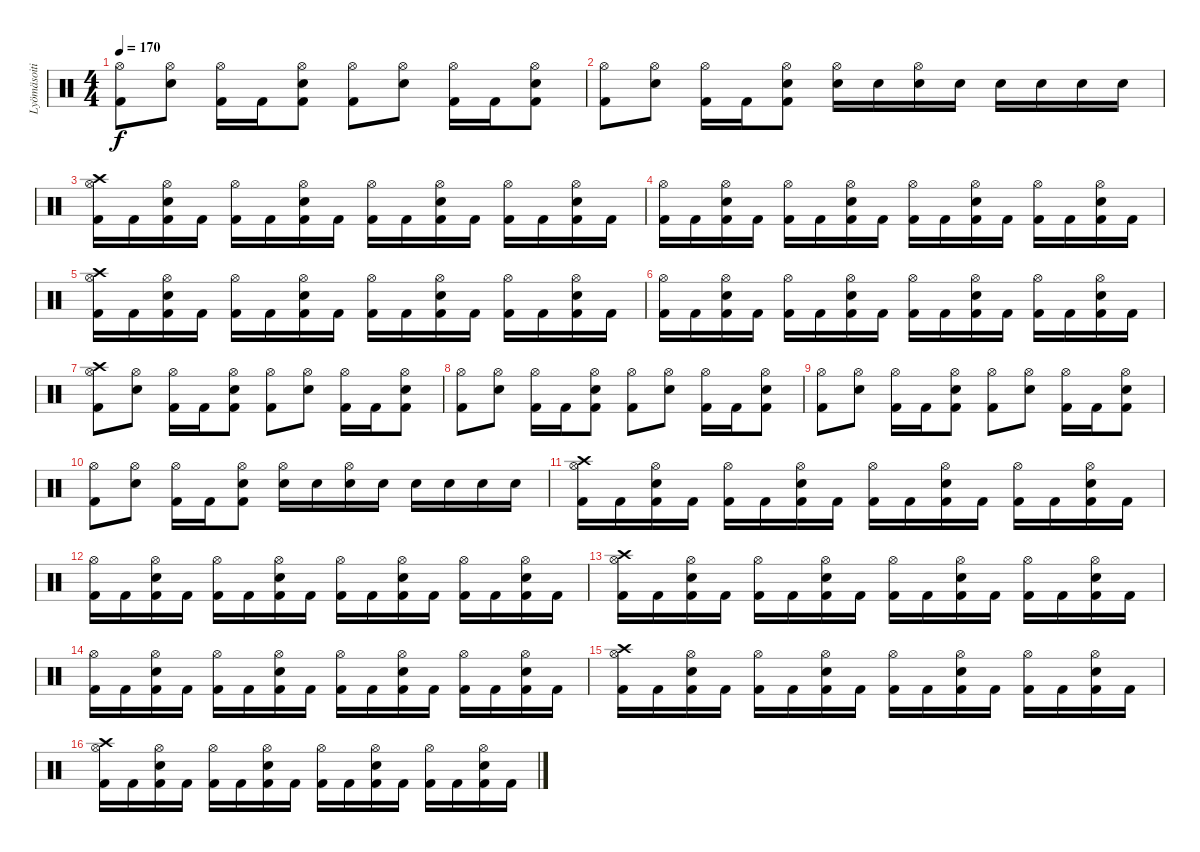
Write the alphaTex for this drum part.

\track ("Lyömäsoitin" "Lyömäsoiti") {instrument percussion}
\staff {score}
\articulation defaults
\ts (4 4)
\tempo 170
\clef neutral
\ks c
("Kick (hit) 2" "Hi-Hat (open)").8{dy f} ("Snare (hit) 2" "Hi-Hat (open)").8 ("Kick (hit) 2" "Hi-Hat (open)").16 "Kick (hit) 2".16 ("Kick (hit) 2" "Snare (hit) 2" "Hi-Hat (open)").8 ("Kick (hit) 2" "Hi-Hat (open)").8 ("Snare (hit) 2" "Hi-Hat (open)").8 ("Kick (hit) 2" "Hi-Hat (open)").16 "Kick (hit) 2".16 ("Kick (hit) 2" "Snare (hit) 2" "Hi-Hat (open)").8 |
("Kick (hit) 2" "Hi-Hat (open)").8 ("Snare (hit) 2" "Hi-Hat (open)").8 ("Kick (hit) 2" "Hi-Hat (open)").16 "Kick (hit) 2".16 ("Kick (hit) 2" "Snare (hit) 2" "Hi-Hat (open)").8 ("Snare (hit) 2" "Hi-Hat (open)").16 "Snare (hit) 2".16 ("Snare (hit) 2" "Hi-Hat (open)").16 "Snare (hit) 2".16 "Snare (hit) 2".16 "Snare (hit) 2".16 "Snare (hit) 2".16 "Snare (hit) 2".16 |
("Kick (hit) 2" "Crash high (hit)" "Hi-Hat (open)").16 "Kick (hit) 2".16 ("Kick (hit) 2" "Snare (hit) 2" "Hi-Hat (open)").16 "Kick (hit) 2".16 ("Kick (hit) 2" "Hi-Hat (open)").16 "Kick (hit) 2".16 ("Kick (hit) 2" "Snare (hit) 2" "Hi-Hat (open)").16 "Kick (hit) 2".16 ("Kick (hit) 2" "Hi-Hat (open)").16 "Kick (hit) 2".16 ("Kick (hit) 2" "Snare (hit) 2" "Hi-Hat (open)").16 "Kick (hit) 2".16 ("Kick (hit) 2" "Hi-Hat (open)").16 "Kick (hit) 2".16 ("Kick (hit) 2" "Snare (hit) 2" "Hi-Hat (open)").16 "Kick (hit) 2".16 |
("Kick (hit) 2" "Hi-Hat (open)").16 "Kick (hit) 2".16 ("Kick (hit) 2" "Snare (hit) 2" "Hi-Hat (open)").16 "Kick (hit) 2".16 ("Kick (hit) 2" "Hi-Hat (open)").16 "Kick (hit) 2".16 ("Kick (hit) 2" "Snare (hit) 2" "Hi-Hat (open)").16 "Kick (hit) 2".16 ("Kick (hit) 2" "Hi-Hat (open)").16 "Kick (hit) 2".16 ("Kick (hit) 2" "Snare (hit) 2" "Hi-Hat (open)").16 "Kick (hit) 2".16 ("Kick (hit) 2" "Hi-Hat (open)").16 "Kick (hit) 2".16 ("Kick (hit) 2" "Snare (hit) 2" "Hi-Hat (open)").16 "Kick (hit) 2".16 |
("Kick (hit) 2" "Crash high (hit)" "Hi-Hat (open)").16 "Kick (hit) 2".16 ("Kick (hit) 2" "Snare (hit) 2" "Hi-Hat (open)").16 "Kick (hit) 2".16 ("Kick (hit) 2" "Hi-Hat (open)").16 "Kick (hit) 2".16 ("Kick (hit) 2" "Snare (hit) 2" "Hi-Hat (open)").16 "Kick (hit) 2".16 ("Kick (hit) 2" "Hi-Hat (open)").16 "Kick (hit) 2".16 ("Kick (hit) 2" "Snare (hit) 2" "Hi-Hat (open)").16 "Kick (hit) 2".16 ("Kick (hit) 2" "Hi-Hat (open)").16 "Kick (hit) 2".16 ("Kick (hit) 2" "Snare (hit) 2" "Hi-Hat (open)").16 "Kick (hit) 2".16 |
("Kick (hit) 2" "Hi-Hat (open)").16 "Kick (hit) 2".16 ("Kick (hit) 2" "Snare (hit) 2" "Hi-Hat (open)").16 "Kick (hit) 2".16 ("Kick (hit) 2" "Hi-Hat (open)").16 "Kick (hit) 2".16 ("Kick (hit) 2" "Snare (hit) 2" "Hi-Hat (open)").16 "Kick (hit) 2".16 ("Kick (hit) 2" "Hi-Hat (open)").16 "Kick (hit) 2".16 ("Kick (hit) 2" "Snare (hit) 2" "Hi-Hat (open)").16 "Kick (hit) 2".16 ("Kick (hit) 2" "Hi-Hat (open)").16 "Kick (hit) 2".16 ("Kick (hit) 2" "Snare (hit) 2" "Hi-Hat (open)").16 "Kick (hit) 2".16 |
("Kick (hit) 2" "Crash high (hit)" "Hi-Hat (open)").8 ("Snare (hit) 2" "Hi-Hat (open)").8 ("Kick (hit) 2" "Hi-Hat (open)").16 "Kick (hit) 2".16 ("Kick (hit) 2" "Snare (hit) 2" "Hi-Hat (open)").8 ("Kick (hit) 2" "Hi-Hat (open)").8 ("Snare (hit) 2" "Hi-Hat (open)").8 ("Kick (hit) 2" "Hi-Hat (open)").16 "Kick (hit) 2".16 ("Kick (hit) 2" "Snare (hit) 2" "Hi-Hat (open)").8 |
("Kick (hit) 2" "Hi-Hat (open)").8 ("Snare (hit) 2" "Hi-Hat (open)").8 ("Kick (hit) 2" "Hi-Hat (open)").16 "Kick (hit) 2".16 ("Kick (hit) 2" "Snare (hit) 2" "Hi-Hat (open)").8 ("Kick (hit) 2" "Hi-Hat (open)").8 ("Snare (hit) 2" "Hi-Hat (open)").8 ("Kick (hit) 2" "Hi-Hat (open)").16 "Kick (hit) 2".16 ("Kick (hit) 2" "Snare (hit) 2" "Hi-Hat (open)").8 |
("Kick (hit) 2" "Hi-Hat (open)").8 ("Snare (hit) 2" "Hi-Hat (open)").8 ("Kick (hit) 2" "Hi-Hat (open)").16 "Kick (hit) 2".16 ("Kick (hit) 2" "Snare (hit) 2" "Hi-Hat (open)").8 ("Kick (hit) 2" "Hi-Hat (open)").8 ("Snare (hit) 2" "Hi-Hat (open)").8 ("Kick (hit) 2" "Hi-Hat (open)").16 "Kick (hit) 2".16 ("Kick (hit) 2" "Snare (hit) 2" "Hi-Hat (open)").8 |
("Kick (hit) 2" "Hi-Hat (open)").8 ("Snare (hit) 2" "Hi-Hat (open)").8 ("Kick (hit) 2" "Hi-Hat (open)").16 "Kick (hit) 2".16 ("Kick (hit) 2" "Snare (hit) 2" "Hi-Hat (open)").8 ("Snare (hit) 2" "Hi-Hat (open)").16 "Snare (hit) 2".16 ("Snare (hit) 2" "Hi-Hat (open)").16 "Snare (hit) 2".16 "Snare (hit) 2".16 "Snare (hit) 2".16 "Snare (hit) 2".16 "Snare (hit) 2".16 |
("Kick (hit) 2" "Crash high (hit)" "Hi-Hat (open)").16 "Kick (hit) 2".16 ("Kick (hit) 2" "Snare (hit) 2" "Hi-Hat (open)").16 "Kick (hit) 2".16 ("Kick (hit) 2" "Hi-Hat (open)").16 "Kick (hit) 2".16 ("Kick (hit) 2" "Snare (hit) 2" "Hi-Hat (open)").16 "Kick (hit) 2".16 ("Kick (hit) 2" "Hi-Hat (open)").16 "Kick (hit) 2".16 ("Kick (hit) 2" "Snare (hit) 2" "Hi-Hat (open)").16 "Kick (hit) 2".16 ("Kick (hit) 2" "Hi-Hat (open)").16 "Kick (hit) 2".16 ("Kick (hit) 2" "Snare (hit) 2" "Hi-Hat (open)").16 "Kick (hit) 2".16 |
("Kick (hit) 2" "Hi-Hat (open)").16 "Kick (hit) 2".16 ("Kick (hit) 2" "Snare (hit) 2" "Hi-Hat (open)").16 "Kick (hit) 2".16 ("Kick (hit) 2" "Hi-Hat (open)").16 "Kick (hit) 2".16 ("Kick (hit) 2" "Snare (hit) 2" "Hi-Hat (open)").16 "Kick (hit) 2".16 ("Kick (hit) 2" "Hi-Hat (open)").16 "Kick (hit) 2".16 ("Kick (hit) 2" "Snare (hit) 2" "Hi-Hat (open)").16 "Kick (hit) 2".16 ("Kick (hit) 2" "Hi-Hat (open)").16 "Kick (hit) 2".16 ("Kick (hit) 2" "Snare (hit) 2" "Hi-Hat (open)").16 "Kick (hit) 2".16 |
("Kick (hit) 2" "Crash high (hit)" "Hi-Hat (open)").16 "Kick (hit) 2".16 ("Kick (hit) 2" "Snare (hit) 2" "Hi-Hat (open)").16 "Kick (hit) 2".16 ("Kick (hit) 2" "Hi-Hat (open)").16 "Kick (hit) 2".16 ("Kick (hit) 2" "Snare (hit) 2" "Hi-Hat (open)").16 "Kick (hit) 2".16 ("Kick (hit) 2" "Hi-Hat (open)").16 "Kick (hit) 2".16 ("Kick (hit) 2" "Snare (hit) 2" "Hi-Hat (open)").16 "Kick (hit) 2".16 ("Kick (hit) 2" "Hi-Hat (open)").16 "Kick (hit) 2".16 ("Kick (hit) 2" "Snare (hit) 2" "Hi-Hat (open)").16 "Kick (hit) 2".16 |
("Kick (hit) 2" "Hi-Hat (open)").16 "Kick (hit) 2".16 ("Kick (hit) 2" "Snare (hit) 2" "Hi-Hat (open)").16 "Kick (hit) 2".16 ("Kick (hit) 2" "Hi-Hat (open)").16 "Kick (hit) 2".16 ("Kick (hit) 2" "Snare (hit) 2" "Hi-Hat (open)").16 "Kick (hit) 2".16 ("Kick (hit) 2" "Hi-Hat (open)").16 "Kick (hit) 2".16 ("Kick (hit) 2" "Snare (hit) 2" "Hi-Hat (open)").16 "Kick (hit) 2".16 ("Kick (hit) 2" "Hi-Hat (open)").16 "Kick (hit) 2".16 ("Kick (hit) 2" "Snare (hit) 2" "Hi-Hat (open)").16 "Kick (hit) 2".16 |
("Kick (hit) 2" "Crash high (hit)" "Hi-Hat (open)").16 "Kick (hit) 2".16 ("Kick (hit) 2" "Snare (hit) 2" "Hi-Hat (open)").16 "Kick (hit) 2".16 ("Kick (hit) 2" "Hi-Hat (open)").16 "Kick (hit) 2".16 ("Kick (hit) 2" "Snare (hit) 2" "Hi-Hat (open)").16 "Kick (hit) 2".16 ("Kick (hit) 2" "Hi-Hat (open)").16 "Kick (hit) 2".16 ("Kick (hit) 2" "Snare (hit) 2" "Hi-Hat (open)").16 "Kick (hit) 2".16 ("Kick (hit) 2" "Hi-Hat (open)").16 "Kick (hit) 2".16 ("Kick (hit) 2" "Snare (hit) 2" "Hi-Hat (open)").16 "Kick (hit) 2".16 |
("Kick (hit) 2" "Crash high (hit)" "Hi-Hat (open)").16 "Kick (hit) 2".16 ("Kick (hit) 2" "Snare (hit) 2" "Hi-Hat (open)").16 "Kick (hit) 2".16 ("Kick (hit) 2" "Hi-Hat (open)").16 "Kick (hit) 2".16 ("Kick (hit) 2" "Snare (hit) 2" "Hi-Hat (open)").16 "Kick (hit) 2".16 ("Kick (hit) 2" "Hi-Hat (open)").16 "Kick (hit) 2".16 ("Kick (hit) 2" "Snare (hit) 2" "Hi-Hat (open)").16 "Kick (hit) 2".16 ("Kick (hit) 2" "Hi-Hat (open)").16 "Kick (hit) 2".16 ("Kick (hit) 2" "Snare (hit) 2" "Hi-Hat (open)").16 "Kick (hit) 2".16
